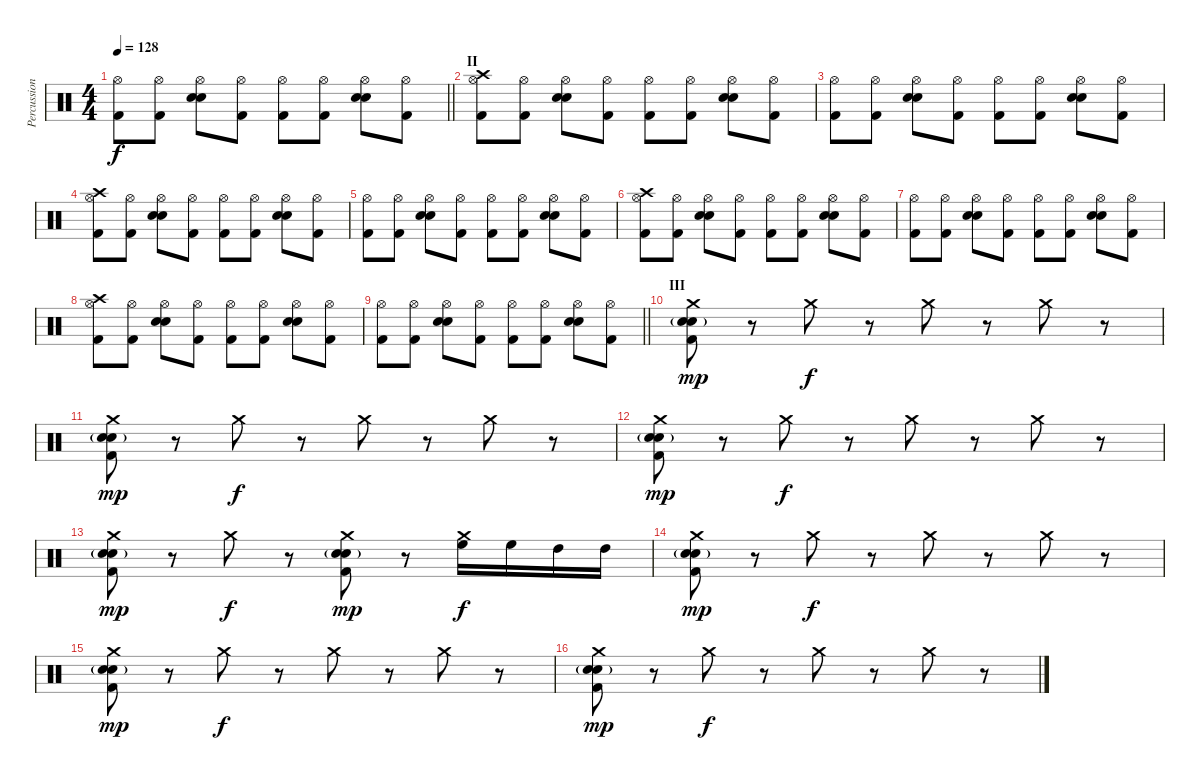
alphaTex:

\track ("Percussion" "Percussion") {instrument percussion}
\staff {score}
\articulation defaults
\ts (4 4)
\tempo 128
\clef neutral
\barLineRight lightlight
\ks c
("Kick (hit) 2" "Hi-Hat (open)").8{dy f} ("Kick (hit) 2" "Hi-Hat (open)").8 ("Electric Snare (hit)" "Snare (hit) 2" "Hi-Hat (open)").8 ("Kick (hit) 2" "Hi-Hat (open)").8 ("Kick (hit) 2" "Hi-Hat (open)").8 ("Kick (hit) 2" "Hi-Hat (open)").8 ("Electric Snare (hit)" "Snare (hit) 2" "Hi-Hat (open)").8 ("Kick (hit) 2" "Hi-Hat (open)").8 |
\section ("" "II")
("Crash high (hit)" "Kick (hit) 2" "Hi-Hat (open)").8 ("Kick (hit) 2" "Hi-Hat (open)").8 ("Electric Snare (hit)" "Snare (hit) 2" "Hi-Hat (open)").8 ("Kick (hit) 2" "Hi-Hat (open)").8 ("Kick (hit) 2" "Hi-Hat (open)").8 ("Kick (hit) 2" "Hi-Hat (open)").8 ("Electric Snare (hit)" "Snare (hit) 2" "Hi-Hat (open)").8 ("Kick (hit) 2" "Hi-Hat (open)").8 |
("Kick (hit) 2" "Hi-Hat (open)").8 ("Kick (hit) 2" "Hi-Hat (open)").8 ("Electric Snare (hit)" "Snare (hit) 2" "Hi-Hat (open)").8 ("Kick (hit) 2" "Hi-Hat (open)").8 ("Kick (hit) 2" "Hi-Hat (open)").8 ("Kick (hit) 2" "Hi-Hat (open)").8 ("Electric Snare (hit)" "Snare (hit) 2" "Hi-Hat (open)").8 ("Kick (hit) 2" "Hi-Hat (open)").8 |
("Crash high (hit)" "Kick (hit) 2" "Hi-Hat (open)").8 ("Kick (hit) 2" "Hi-Hat (open)").8 ("Electric Snare (hit)" "Snare (hit) 2" "Hi-Hat (open)").8 ("Kick (hit) 2" "Hi-Hat (open)").8 ("Kick (hit) 2" "Hi-Hat (open)").8 ("Kick (hit) 2" "Hi-Hat (open)").8 ("Electric Snare (hit)" "Snare (hit) 2" "Hi-Hat (open)").8 ("Kick (hit) 2" "Hi-Hat (open)").8 |
("Kick (hit) 2" "Hi-Hat (open)").8 ("Kick (hit) 2" "Hi-Hat (open)").8 ("Electric Snare (hit)" "Snare (hit) 2" "Hi-Hat (open)").8 ("Kick (hit) 2" "Hi-Hat (open)").8 ("Kick (hit) 2" "Hi-Hat (open)").8 ("Kick (hit) 2" "Hi-Hat (open)").8 ("Electric Snare (hit)" "Snare (hit) 2" "Hi-Hat (open)").8 ("Kick (hit) 2" "Hi-Hat (open)").8 |
("Crash high (hit)" "Kick (hit) 2" "Hi-Hat (open)").8 ("Kick (hit) 2" "Hi-Hat (open)").8 ("Electric Snare (hit)" "Snare (hit) 2" "Hi-Hat (open)").8 ("Kick (hit) 2" "Hi-Hat (open)").8 ("Kick (hit) 2" "Hi-Hat (open)").8 ("Kick (hit) 2" "Hi-Hat (open)").8 ("Electric Snare (hit)" "Snare (hit) 2" "Hi-Hat (open)").8 ("Kick (hit) 2" "Hi-Hat (open)").8 |
("Kick (hit) 2" "Hi-Hat (open)").8 ("Kick (hit) 2" "Hi-Hat (open)").8 ("Electric Snare (hit)" "Snare (hit) 2" "Hi-Hat (open)").8 ("Kick (hit) 2" "Hi-Hat (open)").8 ("Kick (hit) 2" "Hi-Hat (open)").8 ("Kick (hit) 2" "Hi-Hat (open)").8 ("Electric Snare (hit)" "Snare (hit) 2" "Hi-Hat (open)").8 ("Kick (hit) 2" "Hi-Hat (open)").8 |
("Crash high (hit)" "Kick (hit) 2" "Hi-Hat (open)").8 ("Kick (hit) 2" "Hi-Hat (open)").8 ("Electric Snare (hit)" "Snare (hit) 2" "Hi-Hat (open)").8 ("Kick (hit) 2" "Hi-Hat (open)").8 ("Kick (hit) 2" "Hi-Hat (open)").8 ("Kick (hit) 2" "Hi-Hat (open)").8 ("Electric Snare (hit)" "Snare (hit) 2" "Hi-Hat (open)").8 ("Kick (hit) 2" "Hi-Hat (open)").8 |
\barLineRight lightlight
("Kick (hit) 2" "Hi-Hat (open)").8 ("Kick (hit) 2" "Hi-Hat (open)").8 ("Electric Snare (hit)" "Snare (hit) 2" "Hi-Hat (open)").8 ("Kick (hit) 2" "Hi-Hat (open)").8 ("Kick (hit) 2" "Hi-Hat (open)").8 ("Kick (hit) 2" "Hi-Hat (open)").8 ("Electric Snare (hit)" "Snare (hit) 2" "Hi-Hat (open)").8 ("Kick (hit) 2" "Hi-Hat (open)").8 |
\section ("" "III")
("Crash medium (hit)" "Electric Snare (hit)" "Snare (hit) 2"{g} "Kick (hit) 2").8{dy mp} r.8 "Crash medium (hit)".8{dy f} r.8 "Crash medium (hit)".8 r.8 "Crash medium (hit)".8 r.8 |
("Crash medium (hit)" "Electric Snare (hit)" "Snare (hit) 2"{g} "Kick (hit) 2").8{dy mp} r.8 "Crash medium (hit)".8{dy f} r.8 "Crash medium (hit)".8 r.8 "Crash medium (hit)".8 r.8 |
("Crash medium (hit)" "Electric Snare (hit)" "Snare (hit) 2"{g} "Kick (hit) 2").8{dy mp} r.8 "Crash medium (hit)".8{dy f} r.8 "Crash medium (hit)".8 r.8 "Crash medium (hit)".8 r.8 |
("Crash medium (hit)" "Electric Snare (hit)" "Snare (hit) 2"{g} "Kick (hit) 2").8{dy mp} r.8 "Crash medium (hit)".8{dy f} r.8 ("Crash medium (hit)" "Electric Snare (hit)" "Snare (hit) 2"{g} "Kick (hit) 2").8{dy mp} r.8 ("Crash medium (hit)" "High Floor Tom (hit)").16{dy f} "High Floor Tom (hit)".16 "High Tom (hit)".16 "High Tom (hit)".16 |
("Crash medium (hit)" "Electric Snare (hit)" "Snare (hit) 2"{g} "Kick (hit) 2").8{dy mp} r.8 "Crash medium (hit)".8{dy f} r.8 "Crash medium (hit)".8 r.8 "Crash medium (hit)".8 r.8 |
("Crash medium (hit)" "Electric Snare (hit)" "Snare (hit) 2"{g} "Kick (hit) 2").8{dy mp} r.8 "Crash medium (hit)".8{dy f} r.8 "Crash medium (hit)".8 r.8 "Crash medium (hit)".8 r.8 |
("Crash medium (hit)" "Electric Snare (hit)" "Snare (hit) 2"{g} "Kick (hit) 2").8{dy mp} r.8 "Crash medium (hit)".8{dy f} r.8 "Crash medium (hit)".8 r.8 "Crash medium (hit)".8 r.8
